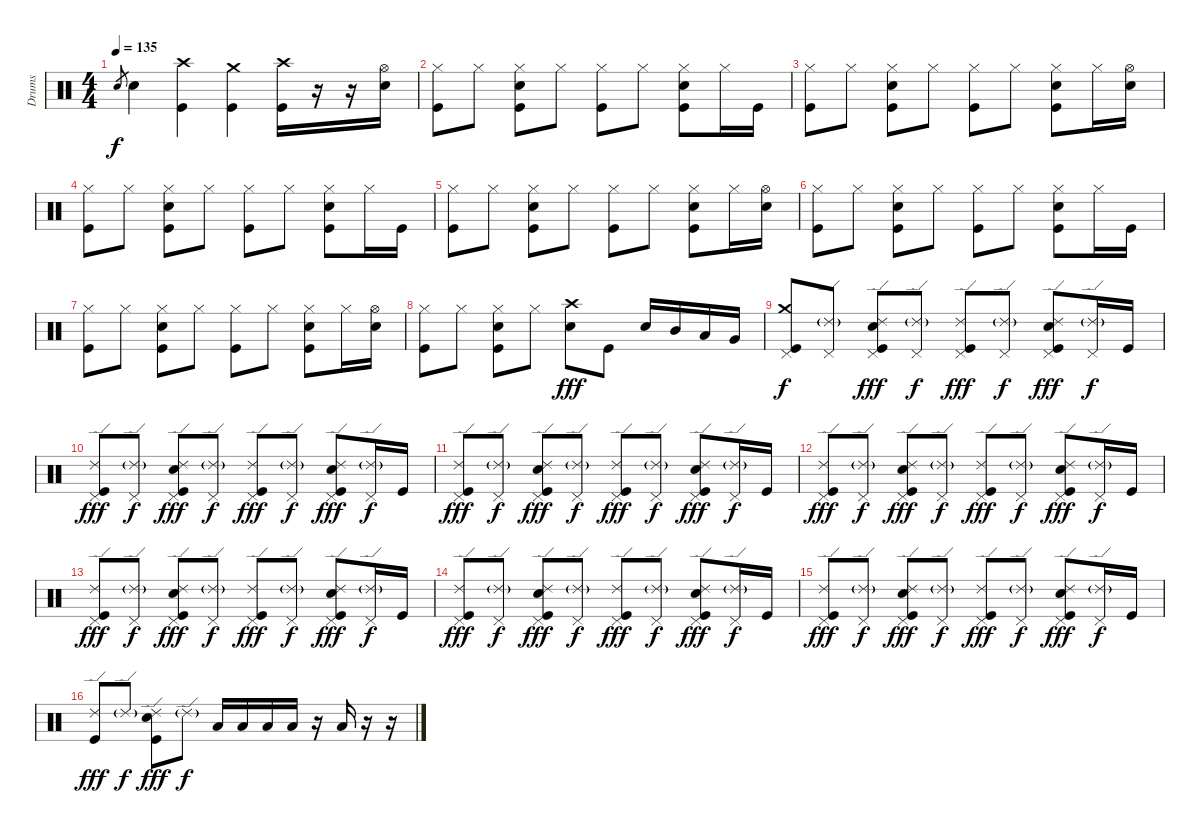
\track ("Drums" "Drums") {instrument percussion}
\staff {score}
\articulation defaults
\ts (4 4)
\tempo 135
\clef neutral
\ks c "Electric Snare (hit)".8{gr dy f} "Electric Snare (hit)".4
("Kick (hit)" "Crash high (hit)").4 ("Kick (hit)" "Crash medium (hit)").4 ("Kick (hit)" "Crash high (hit)").16 r.16 r.16 ("Electric Snare (hit)" "Hi-Hat (open)").16 |
("Kick (hit)" "Hi-Hat (closed)").8 "Hi-Hat (closed)".8 ("Kick (hit)" "Electric Snare (hit)" "Hi-Hat (closed)").8 "Hi-Hat (closed)".8 ("Kick (hit)" "Hi-Hat (closed)").8 "Hi-Hat (closed)".8 ("Kick (hit)" "Electric Snare (hit)" "Hi-Hat (closed)").8 "Hi-Hat (closed)".16 "Kick (hit)".16 |
("Kick (hit)" "Hi-Hat (closed)").8 "Hi-Hat (closed)".8 ("Kick (hit)" "Electric Snare (hit)" "Hi-Hat (closed)").8 "Hi-Hat (closed)".8 ("Kick (hit)" "Hi-Hat (closed)").8 "Hi-Hat (closed)".8 ("Kick (hit)" "Electric Snare (hit)" "Hi-Hat (closed)").8 "Hi-Hat (closed)".16 ("Electric Snare (hit)" "Hi-Hat (open)").16 |
("Kick (hit)" "Hi-Hat (closed)").8 "Hi-Hat (closed)".8 ("Kick (hit)" "Electric Snare (hit)" "Hi-Hat (closed)").8 "Hi-Hat (closed)".8 ("Kick (hit)" "Hi-Hat (closed)").8 "Hi-Hat (closed)".8 ("Kick (hit)" "Electric Snare (hit)" "Hi-Hat (closed)").8 "Hi-Hat (closed)".16 "Kick (hit)".16 |
("Kick (hit)" "Hi-Hat (closed)").8 "Hi-Hat (closed)".8 ("Kick (hit)" "Electric Snare (hit)" "Hi-Hat (closed)").8 "Hi-Hat (closed)".8 ("Kick (hit)" "Hi-Hat (closed)").8 "Hi-Hat (closed)".8 ("Kick (hit)" "Electric Snare (hit)" "Hi-Hat (closed)").8 "Hi-Hat (closed)".16 ("Electric Snare (hit)" "Hi-Hat (open)").16 |
("Kick (hit)" "Hi-Hat (closed)").8 "Hi-Hat (closed)".8 ("Kick (hit)" "Electric Snare (hit)" "Hi-Hat (closed)").8 "Hi-Hat (closed)".8 ("Kick (hit)" "Hi-Hat (closed)").8 "Hi-Hat (closed)".8 ("Kick (hit)" "Electric Snare (hit)" "Hi-Hat (closed)").8 "Hi-Hat (closed)".16 "Kick (hit)".16 |
("Kick (hit)" "Hi-Hat (closed)").8 "Hi-Hat (closed)".8 ("Kick (hit)" "Electric Snare (hit)" "Hi-Hat (closed)").8 "Hi-Hat (closed)".8 ("Kick (hit)" "Hi-Hat (closed)").8 "Hi-Hat (closed)".8 ("Kick (hit)" "Electric Snare (hit)" "Hi-Hat (closed)").8 "Hi-Hat (closed)".16 ("Electric Snare (hit)" "Hi-Hat (open)").16 |
("Kick (hit)" "Hi-Hat (closed)").8 "Hi-Hat (closed)".8 ("Kick (hit)" "Electric Snare (hit)" "Hi-Hat (closed)").8 "Hi-Hat (closed)".8 ("Electric Snare (hit)" "Crash high (hit)").8{dy fff} "Kick (hit)".8 "Electric Snare (hit)".16 "Mid Tom (hit)".16 "Low Tom (hit)".16 "Very Low Tom (hit)".16 |
("Kick (hit)" "Crash medium (hit)" "Pedal Hi-Hat (hit)").8{dy f} ("Ride (edge) 2"{g} "Pedal Hi-Hat (hit)").8 ("Kick (hit)" "Electric Snare (hit)" "Ride (edge) 2" "Pedal Hi-Hat (hit)").8{dy fff} ("Ride (edge) 2"{g} "Pedal Hi-Hat (hit)").8{dy f} ("Kick (hit)" "Ride (edge) 2" "Pedal Hi-Hat (hit)").8{dy fff} ("Ride (edge) 2"{g} "Pedal Hi-Hat (hit)").8{dy f} ("Kick (hit)" "Electric Snare (hit)" "Ride (edge) 2" "Pedal Hi-Hat (hit)").8{dy fff} ("Ride (edge) 2"{g} "Pedal Hi-Hat (hit)").16{dy f} "Kick (hit)".16 |
("Kick (hit)" "Ride (edge) 2" "Pedal Hi-Hat (hit)").8{dy fff} ("Ride (edge) 2"{g} "Pedal Hi-Hat (hit)").8{dy f} ("Kick (hit)" "Electric Snare (hit)" "Ride (edge) 2" "Pedal Hi-Hat (hit)").8{dy fff} ("Ride (edge) 2"{g} "Pedal Hi-Hat (hit)").8{dy f} ("Kick (hit)" "Ride (edge) 2" "Pedal Hi-Hat (hit)").8{dy fff} ("Ride (edge) 2"{g} "Pedal Hi-Hat (hit)").8{dy f} ("Kick (hit)" "Electric Snare (hit)" "Ride (edge) 2" "Pedal Hi-Hat (hit)").8{dy fff} ("Ride (edge) 2"{g} "Pedal Hi-Hat (hit)").16{dy f} "Kick (hit)".16 |
("Kick (hit)" "Ride (edge) 2" "Pedal Hi-Hat (hit)").8{dy fff} ("Ride (edge) 2"{g} "Pedal Hi-Hat (hit)").8{dy f} ("Kick (hit)" "Electric Snare (hit)" "Ride (edge) 2" "Pedal Hi-Hat (hit)").8{dy fff} ("Ride (edge) 2"{g} "Pedal Hi-Hat (hit)").8{dy f} ("Kick (hit)" "Ride (edge) 2" "Pedal Hi-Hat (hit)").8{dy fff} ("Ride (edge) 2"{g} "Pedal Hi-Hat (hit)").8{dy f} ("Kick (hit)" "Electric Snare (hit)" "Ride (edge) 2" "Pedal Hi-Hat (hit)").8{dy fff} ("Ride (edge) 2"{g} "Pedal Hi-Hat (hit)").16{dy f} "Kick (hit)".16 |
("Kick (hit)" "Ride (edge) 2" "Pedal Hi-Hat (hit)").8{dy fff} ("Ride (edge) 2"{g} "Pedal Hi-Hat (hit)").8{dy f} ("Kick (hit)" "Electric Snare (hit)" "Ride (edge) 2" "Pedal Hi-Hat (hit)").8{dy fff} ("Ride (edge) 2"{g} "Pedal Hi-Hat (hit)").8{dy f} ("Kick (hit)" "Ride (edge) 2" "Pedal Hi-Hat (hit)").8{dy fff} ("Ride (edge) 2"{g} "Pedal Hi-Hat (hit)").8{dy f} ("Kick (hit)" "Electric Snare (hit)" "Ride (edge) 2" "Pedal Hi-Hat (hit)").8{dy fff} ("Ride (edge) 2"{g} "Pedal Hi-Hat (hit)").16{dy f} "Kick (hit)".16 |
("Kick (hit)" "Ride (edge) 2" "Pedal Hi-Hat (hit)").8{dy fff} ("Ride (edge) 2"{g} "Pedal Hi-Hat (hit)").8{dy f} ("Kick (hit)" "Electric Snare (hit)" "Ride (edge) 2" "Pedal Hi-Hat (hit)").8{dy fff} ("Ride (edge) 2"{g} "Pedal Hi-Hat (hit)").8{dy f} ("Kick (hit)" "Ride (edge) 2" "Pedal Hi-Hat (hit)").8{dy fff} ("Ride (edge) 2"{g} "Pedal Hi-Hat (hit)").8{dy f} ("Kick (hit)" "Electric Snare (hit)" "Ride (edge) 2" "Pedal Hi-Hat (hit)").8{dy fff} ("Ride (edge) 2"{g} "Pedal Hi-Hat (hit)").16{dy f} "Kick (hit)".16 |
("Kick (hit)" "Ride (edge) 2" "Pedal Hi-Hat (hit)").8{dy fff} ("Ride (edge) 2"{g} "Pedal Hi-Hat (hit)").8{dy f} ("Kick (hit)" "Electric Snare (hit)" "Ride (edge) 2" "Pedal Hi-Hat (hit)").8{dy fff} ("Ride (edge) 2"{g} "Pedal Hi-Hat (hit)").8{dy f} ("Kick (hit)" "Ride (edge) 2" "Pedal Hi-Hat (hit)").8{dy fff} ("Ride (edge) 2"{g} "Pedal Hi-Hat (hit)").8{dy f} ("Kick (hit)" "Electric Snare (hit)" "Ride (edge) 2" "Pedal Hi-Hat (hit)").8{dy fff} ("Ride (edge) 2"{g} "Pedal Hi-Hat (hit)").16{dy f} "Kick (hit)".16 |
("Kick (hit)" "Ride (edge) 2" "Pedal Hi-Hat (hit)").8{dy fff} ("Ride (edge) 2"{g} "Pedal Hi-Hat (hit)").8{dy f} ("Kick (hit)" "Electric Snare (hit)" "Ride (edge) 2" "Pedal Hi-Hat (hit)").8{dy fff} ("Ride (edge) 2"{g} "Pedal Hi-Hat (hit)").8{dy f} ("Kick (hit)" "Ride (edge) 2" "Pedal Hi-Hat (hit)").8{dy fff} ("Ride (edge) 2"{g} "Pedal Hi-Hat (hit)").8{dy f} ("Kick (hit)" "Electric Snare (hit)" "Ride (edge) 2" "Pedal Hi-Hat (hit)").8{dy fff} ("Ride (edge) 2"{g} "Pedal Hi-Hat (hit)").16{dy f} "Kick (hit)".16 |
("Kick (hit)" "Ride (edge) 2").8{dy fff} "Ride (edge) 2"{g}.8{dy f} ("Kick (hit)" "Electric Snare (hit)" "Ride (edge) 2").8{dy fff} "Ride (edge) 2"{g}.8{dy f} "Low Tom (hit)".16 "Low Tom (hit)".16 "Low Tom (hit)".16 "Low Tom (hit)".16 r.16 "Low Tom (hit)".16 r.16 r.16
